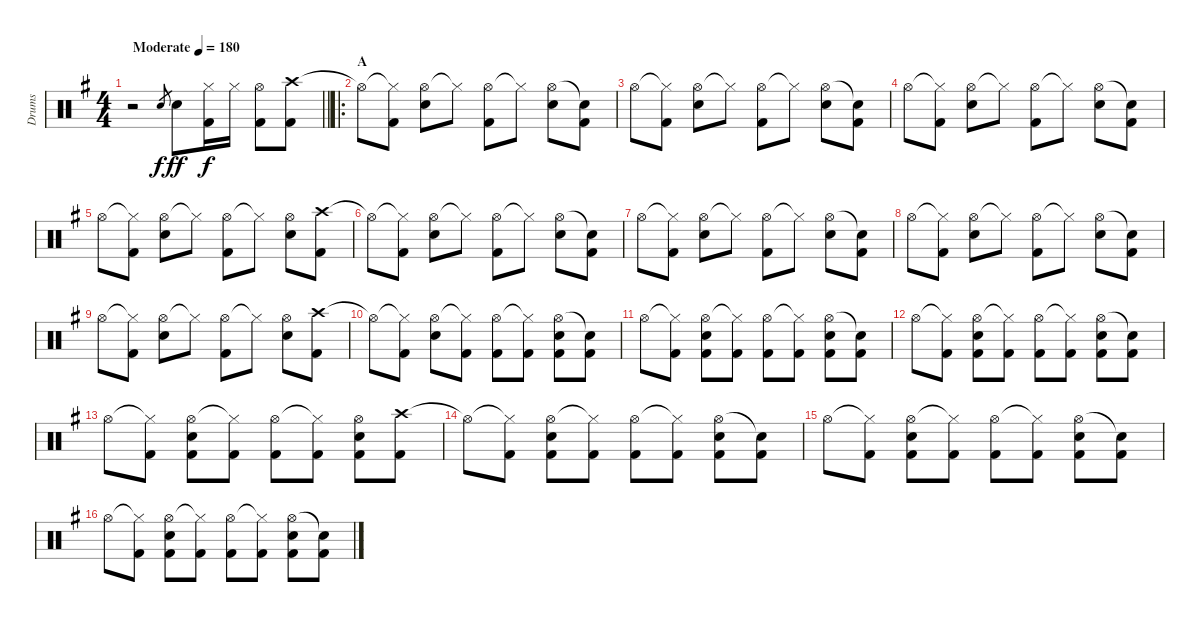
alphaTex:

\track ("Drums" "Drums") {instrument percussion}
\staff {score}
\articulation defaults
\ts (4 4)
\tempo (180 "Moderate")
\clef neutral
\barLineRight lightlight
\ks g
r.2{dy f} "Snare (hit) 2".8{gr} "Snare (hit) 2".8{dy ff} ("Hi-Hat (closed)" "Kick (hit) 2").16{dy f} "Hi-Hat (closed)".16 ("Hi-Hat (open)" "Kick (hit) 2").8 ("Crash high (hit)" "Kick (hit) 2").8 |
\ro
\section ("" "A")
"Hi-Hat (open)"{t}.8 ("Hi-Hat (closed)"{t} "Kick (hit) 2").8 ("Hi-Hat (open)" "Snare (hit) 2").8 "Hi-Hat (closed)"{t}.8 ("Hi-Hat (open)" "Kick (hit) 2").8 "Hi-Hat (closed)"{t}.8 ("Hi-Hat (open)" "Snare (hit) 2").8 ("Snare (hit)"{t} "Kick (hit) 2").8 |
"Hi-Hat (open)".8 ("Hi-Hat (closed)"{t} "Kick (hit) 2").8 ("Hi-Hat (open)" "Snare (hit) 2").8 "Hi-Hat (closed)"{t}.8 ("Hi-Hat (open)" "Kick (hit) 2").8 "Hi-Hat (closed)"{t}.8 ("Hi-Hat (open)" "Snare (hit) 2").8 ("Snare (hit)"{t} "Kick (hit) 2").8 |
"Hi-Hat (open)".8 ("Hi-Hat (closed)"{t} "Kick (hit) 2").8 ("Hi-Hat (open)" "Snare (hit) 2").8 "Hi-Hat (closed)"{t}.8 ("Hi-Hat (open)" "Kick (hit) 2").8 "Hi-Hat (closed)"{t}.8 ("Hi-Hat (open)" "Snare (hit) 2").8 ("Snare (hit)"{t} "Kick (hit) 2").8 |
"Hi-Hat (open)".8 ("Hi-Hat (closed)"{t} "Kick (hit) 2").8 ("Hi-Hat (open)" "Snare (hit) 2").8 "Hi-Hat (closed)"{t}.8 ("Hi-Hat (open)" "Kick (hit) 2").8 "Hi-Hat (closed)"{t}.8 ("Hi-Hat (open)" "Snare (hit) 2").8 ("Crash high (hit)" "Kick (hit) 2").8 |
"Hi-Hat (open)"{t}.8 ("Hi-Hat (closed)"{t} "Kick (hit) 2").8 ("Hi-Hat (open)" "Snare (hit) 2").8 "Hi-Hat (closed)"{t}.8 ("Hi-Hat (open)" "Kick (hit) 2").8 "Hi-Hat (closed)"{t}.8 ("Hi-Hat (open)" "Snare (hit) 2").8 ("Snare (hit)"{t} "Kick (hit) 2").8 |
"Hi-Hat (open)".8 ("Hi-Hat (closed)"{t} "Kick (hit) 2").8 ("Hi-Hat (open)" "Snare (hit) 2").8 "Hi-Hat (closed)"{t}.8 ("Hi-Hat (open)" "Kick (hit) 2").8 "Hi-Hat (closed)"{t}.8 ("Hi-Hat (open)" "Snare (hit) 2").8 ("Snare (hit)"{t} "Kick (hit) 2").8 |
"Hi-Hat (open)".8 ("Hi-Hat (closed)"{t} "Kick (hit) 2").8 ("Hi-Hat (open)" "Snare (hit) 2").8 "Hi-Hat (closed)"{t}.8 ("Hi-Hat (open)" "Kick (hit) 2").8 "Hi-Hat (closed)"{t}.8 ("Hi-Hat (open)" "Snare (hit) 2").8 ("Snare (hit)"{t} "Kick (hit) 2").8 |
"Hi-Hat (open)".8 ("Hi-Hat (closed)"{t} "Kick (hit) 2").8 ("Hi-Hat (open)" "Snare (hit) 2").8 "Hi-Hat (closed)"{t}.8 ("Hi-Hat (open)" "Kick (hit) 2").8 "Hi-Hat (closed)"{t}.8 ("Hi-Hat (open)" "Snare (hit) 2").8 ("Crash high (hit)" "Kick (hit) 2").8 |
"Hi-Hat (open)"{t}.8 ("Hi-Hat (closed)"{t} "Kick (hit) 2").8 ("Hi-Hat (open)" "Snare (hit) 2").8 ("Hi-Hat (closed)"{t} "Kick (hit) 2").8 ("Hi-Hat (open)" "Kick (hit) 2").8 ("Hi-Hat (closed)"{t} "Kick (hit) 2").8 ("Hi-Hat (open)" "Snare (hit) 2" "Kick (hit) 2").8 ("Snare (hit)"{t} "Kick (hit) 2").8 |
"Hi-Hat (open)".8 ("Hi-Hat (closed)"{t} "Kick (hit) 2").8 ("Hi-Hat (open)" "Snare (hit) 2" "Kick (hit) 2").8 ("Hi-Hat (closed)"{t} "Kick (hit) 2").8 ("Hi-Hat (open)" "Kick (hit) 2").8 ("Hi-Hat (closed)"{t} "Kick (hit) 2").8 ("Hi-Hat (open)" "Snare (hit) 2" "Kick (hit) 2").8 ("Snare (hit)"{t} "Kick (hit) 2").8 |
"Hi-Hat (open)".8 ("Hi-Hat (closed)"{t} "Kick (hit) 2").8 ("Hi-Hat (open)" "Snare (hit) 2" "Kick (hit) 2").8 ("Hi-Hat (closed)"{t} "Kick (hit) 2").8 ("Hi-Hat (open)" "Kick (hit) 2").8 ("Hi-Hat (closed)"{t} "Kick (hit) 2").8 ("Hi-Hat (open)" "Snare (hit) 2" "Kick (hit) 2").8 ("Snare (hit)"{t} "Kick (hit) 2").8 |
"Hi-Hat (open)".8 ("Hi-Hat (closed)"{t} "Kick (hit) 2").8 ("Hi-Hat (open)" "Snare (hit) 2" "Kick (hit) 2").8 ("Hi-Hat (closed)"{t} "Kick (hit) 2").8 ("Hi-Hat (open)" "Kick (hit) 2").8 ("Hi-Hat (closed)"{t} "Kick (hit) 2").8 ("Hi-Hat (open)" "Snare (hit) 2" "Kick (hit) 2").8 ("Crash high (hit)" "Kick (hit) 2").8 |
"Hi-Hat (open)"{t}.8 ("Hi-Hat (closed)"{t} "Kick (hit) 2").8 ("Hi-Hat (open)" "Snare (hit) 2" "Kick (hit) 2").8 ("Hi-Hat (closed)"{t} "Kick (hit) 2").8 ("Hi-Hat (open)" "Kick (hit) 2").8 ("Hi-Hat (closed)"{t} "Kick (hit) 2").8 ("Hi-Hat (open)" "Snare (hit) 2" "Kick (hit) 2").8 ("Snare (hit)"{t} "Kick (hit) 2").8 |
"Hi-Hat (open)".8 ("Hi-Hat (closed)"{t} "Kick (hit) 2").8 ("Hi-Hat (open)" "Snare (hit) 2" "Kick (hit) 2").8 ("Hi-Hat (closed)"{t} "Kick (hit) 2").8 ("Hi-Hat (open)" "Kick (hit) 2").8 ("Hi-Hat (closed)"{t} "Kick (hit) 2").8 ("Hi-Hat (open)" "Snare (hit) 2" "Kick (hit) 2").8 ("Snare (hit)"{t} "Kick (hit) 2").8 |
"Hi-Hat (open)".8 ("Hi-Hat (closed)"{t} "Kick (hit) 2").8 ("Hi-Hat (open)" "Snare (hit) 2" "Kick (hit) 2").8 ("Hi-Hat (closed)"{t} "Kick (hit) 2").8 ("Hi-Hat (open)" "Kick (hit) 2").8 ("Hi-Hat (closed)"{t} "Kick (hit) 2").8 ("Hi-Hat (open)" "Snare (hit) 2" "Kick (hit) 2").8 ("Snare (hit)"{t} "Kick (hit) 2").8
